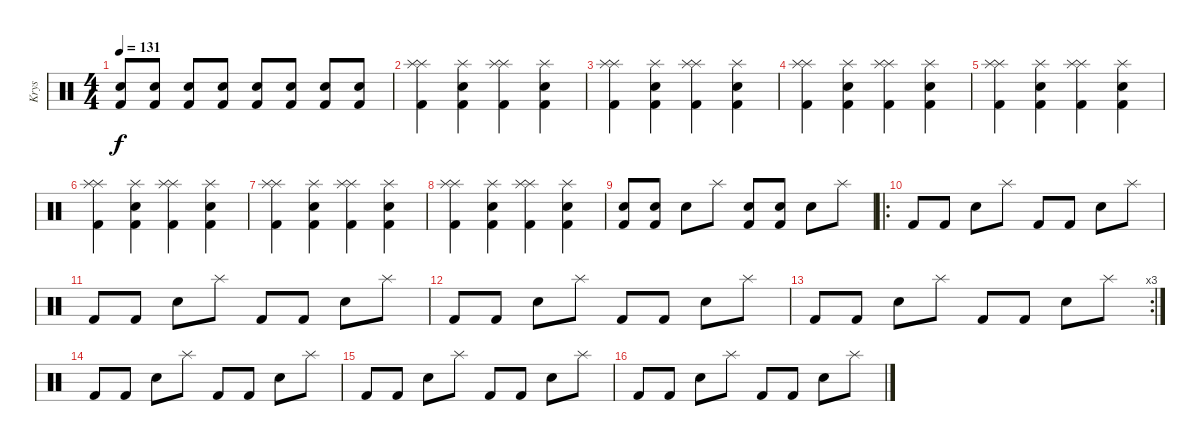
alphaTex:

\track ("Krys" "Krys") {instrument percussion}
\staff {score}
\articulation defaults
\ts (4 4)
\tempo 131
\clef neutral
\ks c
("Snare (hit) 2" "Kick (hit) 2").8{dy f} ("Snare (hit) 2" "Kick (hit) 2").8 ("Snare (hit) 2" "Kick (hit) 2").8 ("Snare (hit) 2" "Kick (hit) 2").8 ("Snare (hit) 2" "Kick (hit) 2").8 ("Snare (hit) 2" "Kick (hit) 2").8 ("Snare (hit) 2" "Kick (hit) 2").8 ("Snare (hit) 2" "Kick (hit) 2").8 |
("Splash (hit)" "Splash (hit)" "Kick (hit) 2").4 ("Snare (hit) 2" "Splash (hit)" "Kick (hit) 2").4 ("Splash (hit)" "Splash (hit)" "Kick (hit) 2").4 ("Snare (hit) 2" "Splash (hit)" "Kick (hit) 2").4 |
("Splash (hit)" "Splash (hit)" "Kick (hit) 2").4 ("Snare (hit) 2" "Splash (hit)" "Kick (hit) 2").4 ("Splash (hit)" "Splash (hit)" "Kick (hit) 2").4 ("Snare (hit) 2" "Splash (hit)" "Kick (hit) 2").4 |
("Splash (hit)" "Splash (hit)" "Kick (hit) 2").4 ("Snare (hit) 2" "Splash (hit)" "Kick (hit) 2").4 ("Splash (hit)" "Splash (hit)" "Kick (hit) 2").4 ("Snare (hit) 2" "Splash (hit)" "Kick (hit) 2").4 |
("Splash (hit)" "Splash (hit)" "Kick (hit) 2").4 ("Snare (hit) 2" "Splash (hit)" "Kick (hit) 2").4 ("Splash (hit)" "Splash (hit)" "Kick (hit) 2").4 ("Snare (hit) 2" "Splash (hit)" "Kick (hit) 2").4 |
("Splash (hit)" "Splash (hit)" "Kick (hit) 2").4 ("Snare (hit) 2" "Splash (hit)" "Kick (hit) 2").4 ("Splash (hit)" "Splash (hit)" "Kick (hit) 2").4 ("Snare (hit) 2" "Splash (hit)" "Kick (hit) 2").4 |
("Splash (hit)" "Splash (hit)" "Kick (hit) 2").4 ("Snare (hit) 2" "Splash (hit)" "Kick (hit) 2").4 ("Splash (hit)" "Splash (hit)" "Kick (hit) 2").4 ("Snare (hit) 2" "Splash (hit)" "Kick (hit) 2").4 |
("Splash (hit)" "Splash (hit)" "Kick (hit) 2").4 ("Snare (hit) 2" "Splash (hit)" "Kick (hit) 2").4 ("Splash (hit)" "Splash (hit)" "Kick (hit) 2").4 ("Snare (hit) 2" "Splash (hit)" "Kick (hit) 2").4 |
("Snare (hit) 2" "Kick (hit) 2").8 ("Snare (hit) 2" "Kick (hit) 2").8 "Snare (hit) 2".8 "Splash (hit)".8 ("Snare (hit) 2" "Kick (hit) 2").8 ("Snare (hit) 2" "Kick (hit) 2").8 "Snare (hit) 2".8 "Splash (hit)".8 |
\ro "Kick (hit) 2".8 "Kick (hit) 2".8 "Snare (hit) 2".8 "Splash (hit)".8 "Kick (hit) 2".8 "Kick (hit) 2".8 "Snare (hit) 2".8 "Splash (hit)".8
|
"Kick (hit) 2".8 "Kick (hit) 2".8 "Snare (hit) 2".8 "Splash (hit)".8 "Kick (hit) 2".8 "Kick (hit) 2".8 "Snare (hit) 2".8 "Splash (hit)".8 |
"Kick (hit) 2".8 "Kick (hit) 2".8 "Snare (hit) 2".8 "Splash (hit)".8 "Kick (hit) 2".8 "Kick (hit) 2".8 "Snare (hit) 2".8 "Splash (hit)".8 |
\rc 3 "Kick (hit) 2".8 "Kick (hit) 2".8 "Snare (hit) 2".8 "Splash (hit)".8 "Kick (hit) 2".8 "Kick (hit) 2".8 "Snare (hit) 2".8 "Splash (hit)".8
|
"Kick (hit) 2".8 "Kick (hit) 2".8 "Snare (hit) 2".8 "Splash (hit)".8 "Kick (hit) 2".8 "Kick (hit) 2".8 "Snare (hit) 2".8 "Splash (hit)".8 |
"Kick (hit) 2".8 "Kick (hit) 2".8 "Snare (hit) 2".8 "Splash (hit)".8 "Kick (hit) 2".8 "Kick (hit) 2".8 "Snare (hit) 2".8 "Splash (hit)".8 |
"Kick (hit) 2".8 "Kick (hit) 2".8 "Snare (hit) 2".8 "Splash (hit)".8 "Kick (hit) 2".8 "Kick (hit) 2".8 "Snare (hit) 2".8 "Splash (hit)".8
